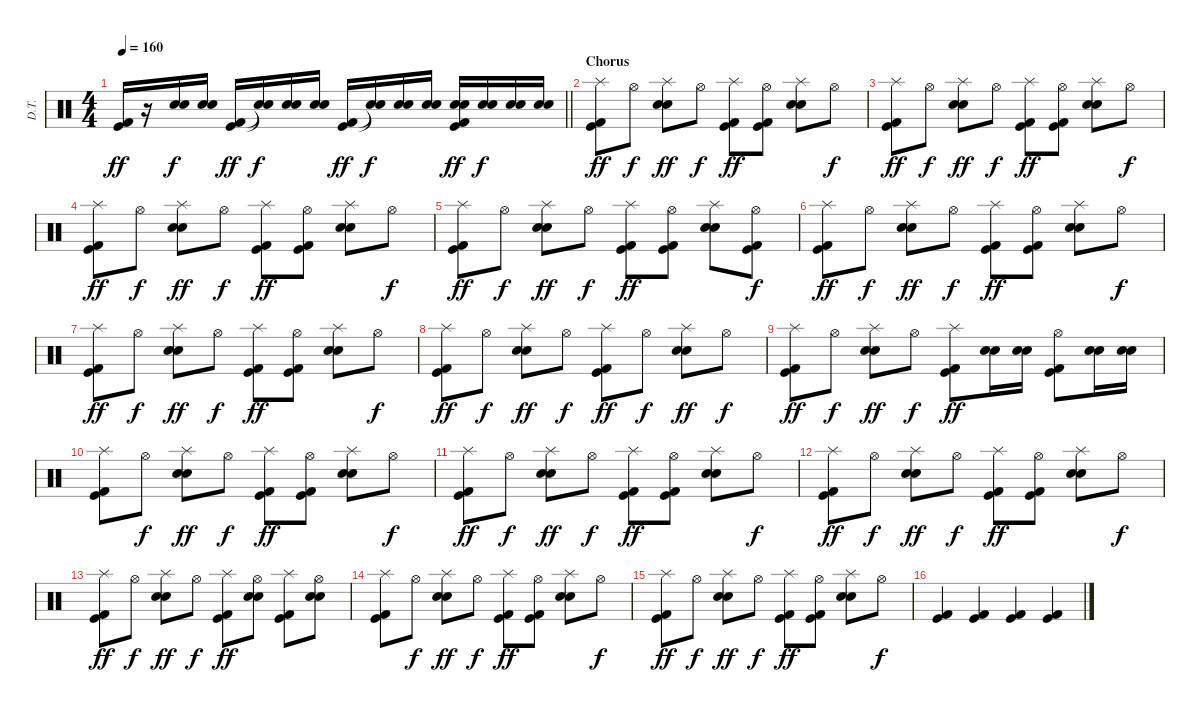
\track ("D.T." "D.T.") {instrument percussion}
\staff {score}
\articulation defaults
\ts (4 4)
\tempo 160
\clef neutral
\barLineRight lightlight
\ks c
("Kick (hit)" "Kick (hit) 2").16{dy ff} r.16 ("Snare (hit) 2" "Electric Snare (hit)").16{dy f} ("Snare (hit) 2" "Electric Snare (hit)").16 ("Kick (hit)" "Kick (hit) 2").16{dy ff} ("Snare (hit)"{t} "Snare (hit)"{t}).16{dy f} ("Snare (hit) 2" "Electric Snare (hit)").16 ("Snare (hit) 2" "Electric Snare (hit)").16 ("Kick (hit)" "Kick (hit) 2").16{dy ff} ("Snare (hit)"{t} "Snare (hit)"{t}).16{dy f} ("Snare (hit) 2" "Electric Snare (hit)").16 ("Snare (hit) 2" "Electric Snare (hit)").16 ("Snare (hit) 2" "Electric Snare (hit)" "Kick (hit)" "Kick (hit) 2").16{dy ff} ("Snare (hit) 2" "Electric Snare (hit)").16{dy f} ("Snare (hit) 2" "Electric Snare (hit)").16 ("Snare (hit) 2" "Electric Snare (hit)").16 |
\section ("" "Chorus")
("Splash (hit)" "Kick (hit)" "Kick (hit) 2").8{dy ff} "Hi-Hat (open)".8{dy f} ("Splash (hit)" "Snare (hit) 2" "Electric Snare (hit)").8{dy ff} "Hi-Hat (open)".8{dy f} ("Splash (hit)" "Kick (hit)" "Kick (hit) 2").8{dy ff} ("Hi-Hat (open)" "Kick (hit)" "Kick (hit) 2").8 ("Splash (hit)" "Snare (hit) 2" "Electric Snare (hit)").8 "Hi-Hat (open)".8{dy f} |
("Splash (hit)" "Kick (hit)" "Kick (hit) 2").8{dy ff} "Hi-Hat (open)".8{dy f} ("Splash (hit)" "Snare (hit) 2" "Electric Snare (hit)").8{dy ff} "Hi-Hat (open)".8{dy f} ("Splash (hit)" "Kick (hit)" "Kick (hit) 2").8{dy ff} ("Hi-Hat (open)" "Kick (hit)" "Kick (hit) 2").8 ("Splash (hit)" "Snare (hit) 2" "Electric Snare (hit)").8 "Hi-Hat (open)".8{dy f} |
("Splash (hit)" "Kick (hit)" "Kick (hit) 2").8{dy ff} "Hi-Hat (open)".8{dy f} ("Splash (hit)" "Snare (hit) 2" "Electric Snare (hit)").8{dy ff} "Hi-Hat (open)".8{dy f} ("Splash (hit)" "Kick (hit)" "Kick (hit) 2").8{dy ff} ("Hi-Hat (open)" "Kick (hit)" "Kick (hit) 2").8 ("Splash (hit)" "Snare (hit) 2" "Electric Snare (hit)").8 "Hi-Hat (open)".8{dy f} |
("Splash (hit)" "Kick (hit)" "Kick (hit) 2").8{dy ff} "Hi-Hat (open)".8{dy f} ("Splash (hit)" "Snare (hit) 2" "Electric Snare (hit)").8{dy ff} "Hi-Hat (open)".8{dy f} ("Splash (hit)" "Kick (hit)" "Kick (hit) 2").8{dy ff} ("Hi-Hat (open)" "Kick (hit)" "Kick (hit) 2").8 ("Splash (hit)" "Snare (hit) 2" "Electric Snare (hit)").8 ("Hi-Hat (open)" "Kick (hit)" "Kick (hit) 2").8{dy f} |
("Splash (hit)" "Kick (hit)" "Kick (hit) 2").8{dy ff} "Hi-Hat (open)".8{dy f} ("Splash (hit)" "Snare (hit) 2" "Electric Snare (hit)").8{dy ff} "Hi-Hat (open)".8{dy f} ("Splash (hit)" "Kick (hit)" "Kick (hit) 2").8{dy ff} ("Hi-Hat (open)" "Kick (hit)" "Kick (hit) 2").8 ("Splash (hit)" "Snare (hit) 2" "Electric Snare (hit)").8 "Hi-Hat (open)".8{dy f} |
("Splash (hit)" "Kick (hit)" "Kick (hit) 2").8{dy ff} "Hi-Hat (open)".8{dy f} ("Splash (hit)" "Snare (hit) 2" "Electric Snare (hit)").8{dy ff} "Hi-Hat (open)".8{dy f} ("Splash (hit)" "Kick (hit)" "Kick (hit) 2").8{dy ff} ("Hi-Hat (open)" "Kick (hit)" "Kick (hit) 2").8 ("Splash (hit)" "Snare (hit) 2" "Electric Snare (hit)").8 "Hi-Hat (open)".8{dy f} |
("Splash (hit)" "Kick (hit)" "Kick (hit) 2").8{dy ff} "Hi-Hat (open)".8{dy f} ("Splash (hit)" "Snare (hit) 2" "Electric Snare (hit)").8{dy ff} "Hi-Hat (open)".8{dy f} ("Splash (hit)" "Kick (hit)" "Kick (hit) 2").8{dy ff} "Hi-Hat (open)".8{dy f} ("Splash (hit)" "Snare (hit) 2" "Electric Snare (hit)").8{dy ff} "Hi-Hat (open)".8{dy f} |
("Splash (hit)" "Kick (hit)" "Kick (hit) 2").8{dy ff} "Hi-Hat (open)".8{dy f} ("Splash (hit)" "Snare (hit) 2" "Electric Snare (hit)").8{dy ff} "Hi-Hat (open)".8{dy f} ("Splash (hit)" "Kick (hit)" "Kick (hit) 2").8{dy ff} ("Snare (hit) 2" "Electric Snare (hit)").16 ("Snare (hit) 2" "Electric Snare (hit)").16 ("Hi-Hat (open)" "Kick (hit)" "Kick (hit) 2").8 ("Snare (hit) 2" "Electric Snare (hit)").16 ("Snare (hit) 2" "Electric Snare (hit)").16 |
("Splash (hit)" "Kick (hit)" "Kick (hit) 2").8 "Hi-Hat (open)".8{dy f} ("Splash (hit)" "Snare (hit) 2" "Electric Snare (hit)").8{dy ff} "Hi-Hat (open)".8{dy f} ("Splash (hit)" "Kick (hit)" "Kick (hit) 2").8{dy ff} ("Hi-Hat (open)" "Kick (hit)" "Kick (hit) 2").8 ("Splash (hit)" "Snare (hit) 2" "Electric Snare (hit)").8 "Hi-Hat (open)".8{dy f} |
("Splash (hit)" "Kick (hit)" "Kick (hit) 2").8{dy ff} "Hi-Hat (open)".8{dy f} ("Splash (hit)" "Snare (hit) 2" "Electric Snare (hit)").8{dy ff} "Hi-Hat (open)".8{dy f} ("Splash (hit)" "Kick (hit)" "Kick (hit) 2").8{dy ff} ("Hi-Hat (open)" "Kick (hit)" "Kick (hit) 2").8 ("Splash (hit)" "Snare (hit) 2" "Electric Snare (hit)").8 "Hi-Hat (open)".8{dy f} |
("Splash (hit)" "Kick (hit)" "Kick (hit) 2").8{dy ff} "Hi-Hat (open)".8{dy f} ("Splash (hit)" "Snare (hit) 2" "Electric Snare (hit)").8{dy ff} "Hi-Hat (open)".8{dy f} ("Splash (hit)" "Kick (hit)" "Kick (hit) 2").8{dy ff} ("Hi-Hat (open)" "Kick (hit)" "Kick (hit) 2").8 ("Splash (hit)" "Snare (hit) 2" "Electric Snare (hit)").8 "Hi-Hat (open)".8{dy f} |
("Splash (hit)" "Kick (hit)" "Kick (hit) 2").8{dy ff} "Hi-Hat (open)".8{dy f} ("Splash (hit)" "Snare (hit) 2" "Electric Snare (hit)").8{dy ff} "Hi-Hat (open)".8{dy f} ("Splash (hit)" "Kick (hit)" "Kick (hit) 2").8{dy ff} ("Hi-Hat (open)" "Snare (hit) 2" "Electric Snare (hit)").8 ("Splash (hit)" "Kick (hit)" "Kick (hit) 2").8 ("Hi-Hat (open)" "Snare (hit) 2" "Electric Snare (hit)").8 |
("Splash (hit)" "Kick (hit)" "Kick (hit) 2").8 "Hi-Hat (open)".8{dy f} ("Splash (hit)" "Snare (hit) 2" "Electric Snare (hit)").8{dy ff} "Hi-Hat (open)".8{dy f} ("Splash (hit)" "Kick (hit)" "Kick (hit) 2").8{dy ff} ("Hi-Hat (open)" "Kick (hit)" "Kick (hit) 2").8 ("Splash (hit)" "Snare (hit) 2" "Electric Snare (hit)").8 "Hi-Hat (open)".8{dy f} |
("Splash (hit)" "Kick (hit)" "Kick (hit) 2").8{dy ff} "Hi-Hat (open)".8{dy f} ("Splash (hit)" "Snare (hit) 2" "Electric Snare (hit)").8{dy ff} "Hi-Hat (open)".8{dy f} ("Splash (hit)" "Kick (hit)" "Kick (hit) 2").8{dy ff} ("Hi-Hat (open)" "Kick (hit)" "Kick (hit) 2").8 ("Splash (hit)" "Snare (hit) 2" "Electric Snare (hit)").8 "Hi-Hat (open)".8{dy f} |
("Kick (hit)" "Kick (hit) 2").4 ("Kick (hit)" "Kick (hit) 2").4 ("Kick (hit)" "Kick (hit) 2").4 ("Kick (hit)" "Kick (hit) 2").4
